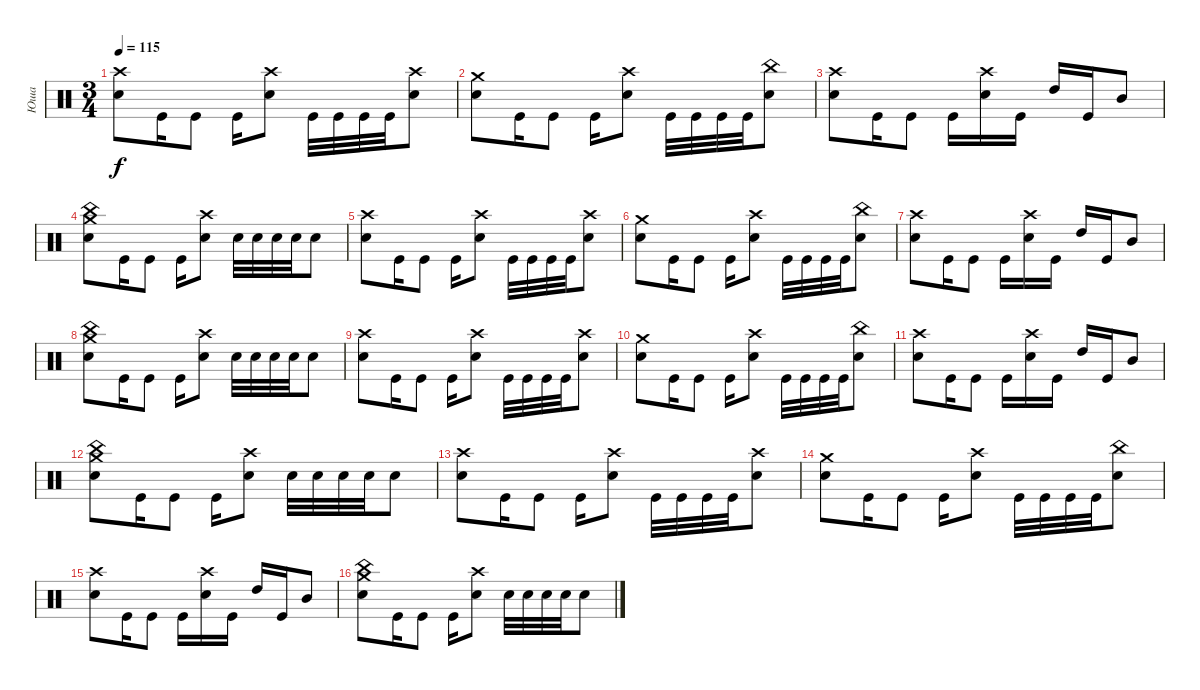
\track ("Юша" "Юша") {instrument percussion}
\staff {score}
\articulation defaults
\ts (3 4)
\tempo 115
\clef neutral
\ks c
("Crash high (hit)" "Snare (hit) 2").8{dy f} "Kick (hit)".16 "Kick (hit)".8 "Kick (hit)".16 ("Snare (hit) 2" "Crash high (hit)").8 "Kick (hit)".32 "Kick (hit)".32 "Kick (hit)".32 "Kick (hit)".32 ("Snare (hit) 2" "Crash high (hit)").8 |
("Crash medium (hit)" "Snare (hit) 2").8 "Kick (hit)".16 "Kick (hit)".8 "Kick (hit)".16 ("Snare (hit) 2" "Crash high (hit)").8 "Kick (hit)".32 "Kick (hit)".32 "Kick (hit)".32 "Kick (hit)".32 ("Snare (hit) 2" "China (hit)").8 |
("Crash high (hit)" "Snare (hit) 2").8 "Kick (hit)".16 "Kick (hit)".8 "Kick (hit)".16 ("Snare (hit) 2" "Crash high (hit)").16 "Kick (hit)".16 "High Tom (hit)".16 "Kick (hit)".16 "Mid Tom (hit)".8 |
("Crash medium (hit)" "Snare (hit) 2" "China (hit)").8 "Kick (hit)".16 "Kick (hit)".8 "Kick (hit)".16 ("Snare (hit) 2" "Crash high (hit)").8 "Snare (hit) 2".32 "Snare (hit) 2".32 "Snare (hit) 2".32 "Snare (hit) 2".32 "Snare (hit) 2".8 |
("Crash high (hit)" "Snare (hit) 2").8 "Kick (hit)".16 "Kick (hit)".8 "Kick (hit)".16 ("Snare (hit) 2" "Crash high (hit)").8 "Kick (hit)".32 "Kick (hit)".32 "Kick (hit)".32 "Kick (hit)".32 ("Snare (hit) 2" "Crash high (hit)").8 |
("Crash medium (hit)" "Snare (hit) 2").8 "Kick (hit)".16 "Kick (hit)".8 "Kick (hit)".16 ("Snare (hit) 2" "Crash high (hit)").8 "Kick (hit)".32 "Kick (hit)".32 "Kick (hit)".32 "Kick (hit)".32 ("Snare (hit) 2" "China (hit)").8 |
("Crash high (hit)" "Snare (hit) 2").8 "Kick (hit)".16 "Kick (hit)".8 "Kick (hit)".16 ("Snare (hit) 2" "Crash high (hit)").16 "Kick (hit)".16 "High Tom (hit)".16 "Kick (hit)".16 "Mid Tom (hit)".8 |
("Crash medium (hit)" "Snare (hit) 2" "China (hit)").8 "Kick (hit)".16 "Kick (hit)".8 "Kick (hit)".16 ("Snare (hit) 2" "Crash high (hit)").8 "Snare (hit) 2".32 "Snare (hit) 2".32 "Snare (hit) 2".32 "Snare (hit) 2".32 "Snare (hit) 2".8 |
("Crash high (hit)" "Snare (hit) 2").8 "Kick (hit)".16 "Kick (hit)".8 "Kick (hit)".16 ("Snare (hit) 2" "Crash high (hit)").8 "Kick (hit)".32 "Kick (hit)".32 "Kick (hit)".32 "Kick (hit)".32 ("Snare (hit) 2" "Crash high (hit)").8 |
("Crash medium (hit)" "Snare (hit) 2").8 "Kick (hit)".16 "Kick (hit)".8 "Kick (hit)".16 ("Snare (hit) 2" "Crash high (hit)").8 "Kick (hit)".32 "Kick (hit)".32 "Kick (hit)".32 "Kick (hit)".32 ("Snare (hit) 2" "China (hit)").8 |
("Crash high (hit)" "Snare (hit) 2").8 "Kick (hit)".16 "Kick (hit)".8 "Kick (hit)".16 ("Snare (hit) 2" "Crash high (hit)").16 "Kick (hit)".16 "High Tom (hit)".16 "Kick (hit)".16 "Mid Tom (hit)".8 |
("Crash medium (hit)" "Snare (hit) 2" "China (hit)").8 "Kick (hit)".16 "Kick (hit)".8 "Kick (hit)".16 ("Snare (hit) 2" "Crash high (hit)").8 "Snare (hit) 2".32 "Snare (hit) 2".32 "Snare (hit) 2".32 "Snare (hit) 2".32 "Snare (hit) 2".8 |
("Crash high (hit)" "Snare (hit) 2").8 "Kick (hit)".16 "Kick (hit)".8 "Kick (hit)".16 ("Snare (hit) 2" "Crash high (hit)").8 "Kick (hit)".32 "Kick (hit)".32 "Kick (hit)".32 "Kick (hit)".32 ("Snare (hit) 2" "Crash high (hit)").8 |
("Crash medium (hit)" "Snare (hit) 2").8 "Kick (hit)".16 "Kick (hit)".8 "Kick (hit)".16 ("Snare (hit) 2" "Crash high (hit)").8 "Kick (hit)".32 "Kick (hit)".32 "Kick (hit)".32 "Kick (hit)".32 ("Snare (hit) 2" "China (hit)").8 |
("Crash high (hit)" "Snare (hit) 2").8 "Kick (hit)".16 "Kick (hit)".8 "Kick (hit)".16 ("Snare (hit) 2" "Crash high (hit)").16 "Kick (hit)".16 "High Tom (hit)".16 "Kick (hit)".16 "Mid Tom (hit)".8 |
("Crash medium (hit)" "Snare (hit) 2" "China (hit)").8 "Kick (hit)".16 "Kick (hit)".8 "Kick (hit)".16 ("Snare (hit) 2" "Crash high (hit)").8 "Snare (hit) 2".32 "Snare (hit) 2".32 "Snare (hit) 2".32 "Snare (hit) 2".32 "Snare (hit) 2".8
